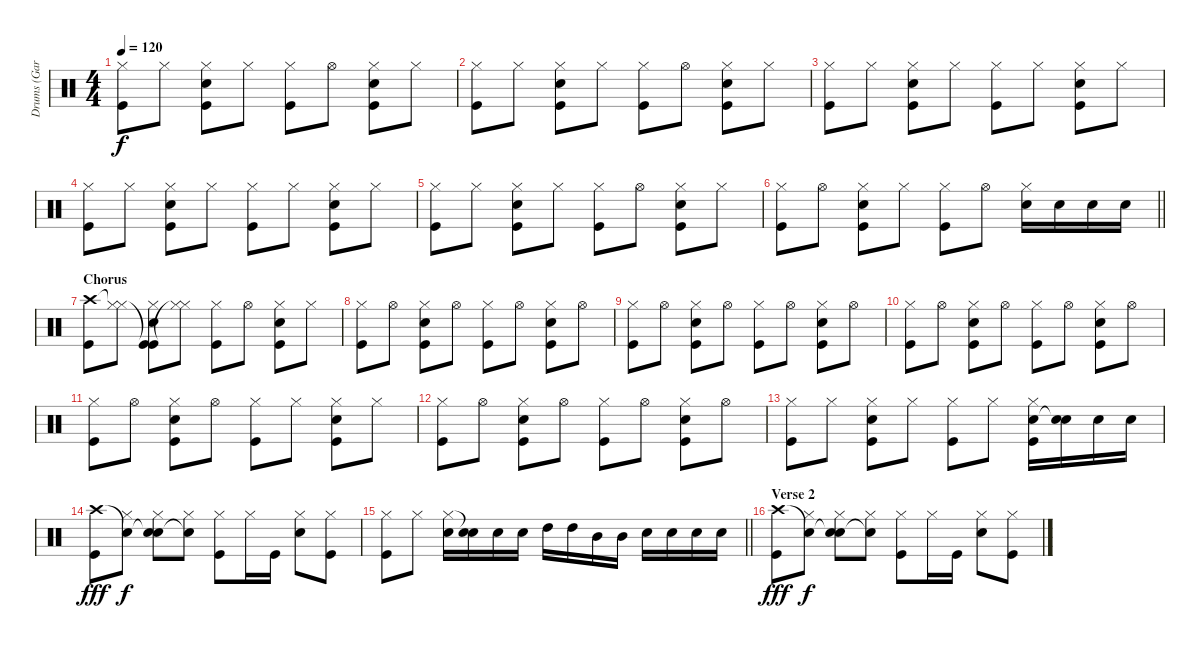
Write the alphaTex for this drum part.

\track ("Drums (Gary Mallaber)" "Drums (Gar") {instrument percussion}
\staff {score}
\articulation defaults
\ts (4 4)
\tempo 120
\clef neutral
\ks c
("Hi-Hat (closed)" "Kick (hit)").8{dy f} "Hi-Hat (closed)".8 ("Hi-Hat (closed)" "Snare (hit) 2" "Kick (hit)").8 "Hi-Hat (closed)".8 ("Hi-Hat (closed)" "Kick (hit)").8 "Hi-Hat (open)".8 ("Hi-Hat (closed)" "Snare (hit) 2" "Kick (hit)").8 "Hi-Hat (closed)".8 |
("Hi-Hat (closed)" "Kick (hit)").8 "Hi-Hat (closed)".8 ("Hi-Hat (closed)" "Snare (hit) 2" "Kick (hit)").8 "Hi-Hat (closed)".8 ("Hi-Hat (closed)" "Kick (hit)").8 "Hi-Hat (open)".8 ("Hi-Hat (closed)" "Snare (hit) 2" "Kick (hit)").8 "Hi-Hat (closed)".8 |
("Hi-Hat (closed)" "Kick (hit)").8 "Hi-Hat (closed)".8 ("Hi-Hat (closed)" "Snare (hit) 2" "Kick (hit)").8 "Hi-Hat (closed)".8 ("Hi-Hat (closed)" "Kick (hit)").8 "Hi-Hat (closed)".8 ("Hi-Hat (closed)" "Snare (hit) 2" "Kick (hit)").8 "Hi-Hat (closed)".8 |
("Hi-Hat (closed)" "Kick (hit)").8 "Hi-Hat (closed)".8 ("Hi-Hat (closed)" "Snare (hit) 2" "Kick (hit)").8 "Hi-Hat (closed)".8 ("Hi-Hat (closed)" "Kick (hit)").8 "Hi-Hat (closed)".8 ("Hi-Hat (closed)" "Snare (hit) 2" "Kick (hit)").8 "Hi-Hat (closed)".8 |
("Hi-Hat (closed)" "Kick (hit)").8 "Hi-Hat (closed)".8 ("Hi-Hat (closed)" "Snare (hit) 2" "Kick (hit)").8 "Hi-Hat (closed)".8 ("Hi-Hat (closed)" "Kick (hit)").8 "Hi-Hat (open)".8 ("Hi-Hat (closed)" "Snare (hit) 2" "Kick (hit)").8 "Hi-Hat (closed)".8 |
\barLineRight lightlight
("Hi-Hat (closed)" "Kick (hit)").8 "Hi-Hat (open)".8 ("Hi-Hat (closed)" "Snare (hit) 2" "Kick (hit)").8 "Hi-Hat (closed)".8 ("Hi-Hat (closed)" "Kick (hit)").8 "Hi-Hat (open)".8 ("Hi-Hat (closed)" "Snare (hit) 2").16 "Snare (hit) 2".16 "Snare (hit) 2".16 "Snare (hit) 2".16 |
\section ("" "Chorus")
("Crash high (hit)" "Kick (hit)").8 ("Hi-Hat (closed)"{t} "Hi-Hat (closed)").8 ("Kick (hit)"{t} "Hi-Hat (closed)" "Snare (hit) 2" "Kick (hit)").8 ("Hi-Hat (closed)"{t} "Hi-Hat (closed)").8 ("Hi-Hat (closed)" "Kick (hit)").8 "Hi-Hat (open)".8 ("Hi-Hat (closed)" "Snare (hit) 2" "Kick (hit)").8 "Hi-Hat (closed)".8 |
("Hi-Hat (closed)" "Kick (hit)").8 "Hi-Hat (open)".8 ("Hi-Hat (closed)" "Snare (hit) 2" "Kick (hit)").8 "Hi-Hat (open)".8 ("Hi-Hat (closed)" "Kick (hit)").8 "Hi-Hat (open)".8 ("Hi-Hat (closed)" "Snare (hit) 2" "Kick (hit)").8 "Hi-Hat (open)".8 |
("Hi-Hat (closed)" "Kick (hit)").8 "Hi-Hat (open)".8 ("Hi-Hat (closed)" "Snare (hit) 2" "Kick (hit)").8 "Hi-Hat (open)".8 ("Hi-Hat (closed)" "Kick (hit)").8 "Hi-Hat (open)".8 ("Hi-Hat (closed)" "Snare (hit) 2" "Kick (hit)").8 "Hi-Hat (open)".8 |
("Hi-Hat (closed)" "Kick (hit)").8 "Hi-Hat (open)".8 ("Hi-Hat (closed)" "Snare (hit) 2" "Kick (hit)").8 "Hi-Hat (open)".8 ("Hi-Hat (closed)" "Kick (hit)").8 "Hi-Hat (open)".8 ("Hi-Hat (closed)" "Snare (hit) 2" "Kick (hit)").8 "Hi-Hat (open)".8 |
("Hi-Hat (closed)" "Kick (hit)").8 "Hi-Hat (open)".8 ("Hi-Hat (closed)" "Snare (hit) 2" "Kick (hit)").8 "Hi-Hat (open)".8 ("Hi-Hat (closed)" "Kick (hit)").8 "Hi-Hat (closed)".8 ("Hi-Hat (closed)" "Snare (hit) 2" "Kick (hit)").8 "Hi-Hat (closed)".8 |
("Hi-Hat (closed)" "Kick (hit)").8 "Hi-Hat (open)".8 ("Hi-Hat (closed)" "Snare (hit) 2" "Kick (hit)").8 "Hi-Hat (open)".8 ("Hi-Hat (closed)" "Kick (hit)").8 "Hi-Hat (open)".8 ("Hi-Hat (closed)" "Snare (hit) 2" "Kick (hit)").8 "Hi-Hat (open)".8 |
("Hi-Hat (closed)" "Kick (hit)").8 "Hi-Hat (closed)".8 ("Hi-Hat (closed)" "Snare (hit) 2" "Kick (hit)").8 "Hi-Hat (closed)".8 ("Hi-Hat (closed)" "Kick (hit)").8 "Hi-Hat (closed)".8 ("Hi-Hat (closed)" "Snare (hit) 2" "Kick (hit)").16 ("Snare (hit) 2" "Snare (hit)"{t}).16 "Snare (hit) 2".16 "Snare (hit) 2".16 |
("Crash high (hit)" "Kick (hit)").8{dy fff} ("Snare (hit)"{t} "Hi-Hat (closed)").8{dy f} ("Snare (hit)"{t} "Hi-Hat (closed)" "Snare (hit) 2").8 ("Snare (hit)"{t} "Hi-Hat (closed)").8 ("Hi-Hat (closed)" "Kick (hit)").8 "Hi-Hat (closed)".16 "Kick (hit)".16 ("Hi-Hat (closed)" "Snare (hit) 2").8 ("Hi-Hat (closed)" "Kick (hit)").8 |
\barLineRight lightlight
("Hi-Hat (closed)" "Kick (hit)").8 "Hi-Hat (closed)".8 ("Hi-Hat (closed)" "Snare (hit) 2").16 ("Snare (hit)"{t} "Snare (hit) 2").16 "Snare (hit) 2".16 "Snare (hit) 2".16 "High Tom (hit)".16 "High Tom (hit)".16 "Mid Tom (hit)".16 "Mid Tom (hit)".16 "Snare (hit) 2".16 "Snare (hit) 2".16 "Snare (hit) 2".16 "Snare (hit) 2".16 |
\section ("" "Verse 2")
("Crash high (hit)" "Kick (hit)").8{dy fff} ("Snare (hit)"{t} "Hi-Hat (closed)").8{dy f} ("Snare (hit)"{t} "Hi-Hat (closed)" "Snare (hit) 2").8 ("Snare (hit)"{t} "Hi-Hat (closed)").8 ("Hi-Hat (closed)" "Kick (hit)").8 "Hi-Hat (closed)".16 "Kick (hit)".16 ("Hi-Hat (closed)" "Snare (hit) 2").8 ("Hi-Hat (closed)" "Kick (hit)").8
